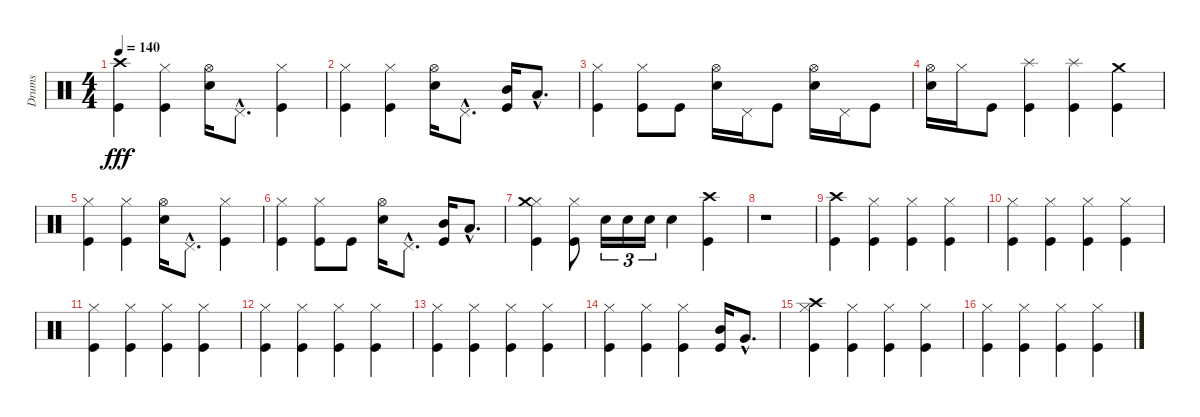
\track ("Drums" "Drums") {instrument percussion}
\staff {score}
\articulation defaults
\ts (4 4)
\tempo 140
\clef neutral
\ks c
("Crash high (hit)" "Kick (hit)").4{dy fff} ("Hi-Hat (closed)" "Kick (hit)").4 ("Hi-Hat (open)" "Electric Snare (hit)").16 "Pedal Hi-Hat (hit)"{hac}.8{d} ("Hi-Hat (closed)" "Kick (hit)").4 |
("Hi-Hat (closed)" "Kick (hit)").4 ("Hi-Hat (closed)" "Kick (hit)").4 ("Hi-Hat (open)" "Electric Snare (hit)").16 "Pedal Hi-Hat (hit)"{hac}.8{d} ("Mid Tom (hit)" "Kick (hit)").16 "Low Floor Tom (hit)"{hac}.8{d} |
("Hi-Hat (closed)" "Kick (hit)").4 ("Hi-Hat (closed)" "Kick (hit)").8 "Kick (hit)".8 ("Hi-Hat (open)" "Electric Snare (hit)").16 "Pedal Hi-Hat (hit)".16 "Kick (hit)".8 ("Hi-Hat (open)" "Electric Snare (hit)").16 "Pedal Hi-Hat (hit)".16 "Kick (hit)".8 |
("Hi-Hat (open)" "Electric Snare (hit)").16 "Hi-Hat (closed)".16 "Kick (hit)".8 ("Splash (hit)" "Kick (hit)").4 ("Splash (hit)" "Kick (hit)").4 ("Crash medium (hit)" "Kick (hit)").4 |
("Hi-Hat (closed)" "Kick (hit)").4 ("Hi-Hat (closed)" "Kick (hit)").4 ("Hi-Hat (open)" "Electric Snare (hit)").16 "Pedal Hi-Hat (hit)"{hac}.8{d} ("Hi-Hat (closed)" "Kick (hit)").4 |
("Hi-Hat (closed)" "Kick (hit)").4 ("Hi-Hat (closed)" "Kick (hit)").8 "Kick (hit)".8 ("Hi-Hat (open)" "Electric Snare (hit)").16 "Pedal Hi-Hat (hit)"{hac}.8{d} ("Mid Tom (hit)" "Kick (hit)").16 "Low Tom (hit)"{hac}.8{d} |
("Hi-Hat (closed)" "Crash medium (hit)" "Kick (hit)").4 ("Hi-Hat (closed)" "Kick (hit)").8 "Electric Snare (hit)".16{tu (3 2)} "Electric Snare (hit)".16{tu (3 2)} "Electric Snare (hit)".16{tu (3 2)} "Electric Snare (hit)".4 ("Crash high (hit)" "Kick (hit)").4 |
r.1 |
("Crash high (hit)" "Kick (hit)").4 ("Hi-Hat (closed)" "Kick (hit)").4 ("Hi-Hat (closed)" "Kick (hit)").4 ("Hi-Hat (closed)" "Kick (hit)").4 |
("Hi-Hat (closed)" "Kick (hit)").4 ("Hi-Hat (closed)" "Kick (hit)").4 ("Hi-Hat (closed)" "Kick (hit)").4 ("Hi-Hat (closed)" "Kick (hit)").4 |
("Hi-Hat (closed)" "Kick (hit)").4 ("Hi-Hat (closed)" "Kick (hit)").4 ("Hi-Hat (closed)" "Kick (hit)").4 ("Hi-Hat (closed)" "Kick (hit)").4 |
("Hi-Hat (closed)" "Kick (hit)").4 ("Hi-Hat (closed)" "Kick (hit)").4 ("Hi-Hat (closed)" "Kick (hit)").4 ("Hi-Hat (closed)" "Kick (hit)").4 |
("Hi-Hat (closed)" "Kick (hit)").4 ("Hi-Hat (closed)" "Kick (hit)").4 ("Hi-Hat (closed)" "Kick (hit)").4 ("Hi-Hat (closed)" "Kick (hit)").4 |
("Hi-Hat (closed)" "Kick (hit)").4 ("Hi-Hat (closed)" "Kick (hit)").4 ("Hi-Hat (closed)" "Kick (hit)").4 ("Mid Tom (hit)" "Kick (hit)").16 "Very Low Tom (hit)"{hac}.8{d} |
("Hi-Hat (closed)" "Crash high (hit)" "Kick (hit)").4 ("Hi-Hat (closed)" "Kick (hit)").4 ("Hi-Hat (closed)" "Kick (hit)").4 ("Hi-Hat (closed)" "Kick (hit)").4 |
("Hi-Hat (closed)" "Kick (hit)").4 ("Hi-Hat (closed)" "Kick (hit)").4 ("Hi-Hat (closed)" "Kick (hit)").4 ("Hi-Hat (closed)" "Kick (hit)").4
